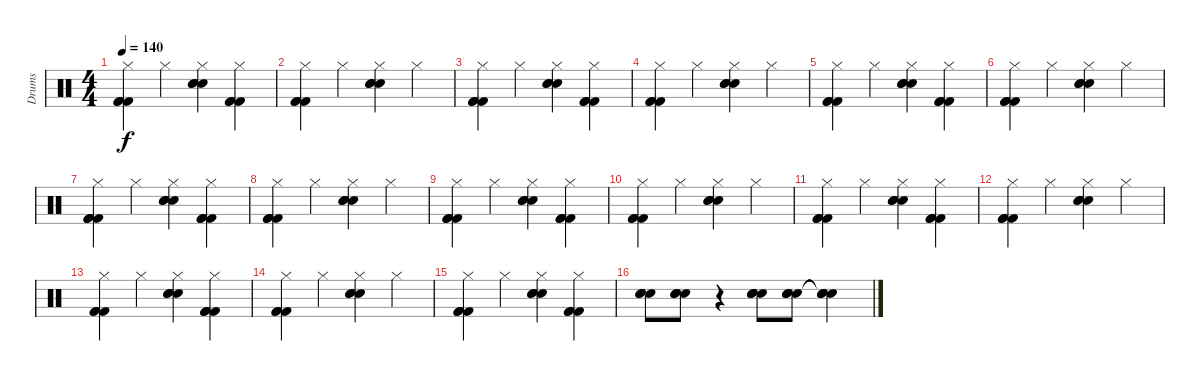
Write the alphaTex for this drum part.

\track ("Drums" "Drums") {instrument percussion}
\staff {score}
\articulation defaults
\ts (4 4)
\tempo 140
\clef neutral
\ks c
("Hi-Hat (closed)" "Kick (hit) 2" "Kick (hit) 2" "Kick (hit) 2").4{dy f} "Hi-Hat (closed)".4 ("Hi-Hat (closed)" "Snare (hit) 2" "Snare (hit) 2" "Snare (hit) 2").4 ("Hi-Hat (closed)" "Kick (hit) 2" "Kick (hit) 2" "Kick (hit) 2").4 |
("Hi-Hat (closed)" "Kick (hit) 2" "Kick (hit) 2" "Kick (hit) 2").4 "Hi-Hat (closed)".4 ("Hi-Hat (closed)" "Snare (hit) 2" "Snare (hit) 2" "Snare (hit) 2").4 "Hi-Hat (closed)".4 |
("Hi-Hat (closed)" "Kick (hit) 2" "Kick (hit) 2" "Kick (hit) 2").4 "Hi-Hat (closed)".4 ("Hi-Hat (closed)" "Snare (hit) 2" "Snare (hit) 2" "Snare (hit) 2").4 ("Hi-Hat (closed)" "Kick (hit) 2" "Kick (hit) 2" "Kick (hit) 2").4 |
("Hi-Hat (closed)" "Kick (hit) 2" "Kick (hit) 2" "Kick (hit) 2").4 "Hi-Hat (closed)".4 ("Hi-Hat (closed)" "Snare (hit) 2" "Snare (hit) 2" "Snare (hit) 2").4 "Hi-Hat (closed)".4 |
("Hi-Hat (closed)" "Kick (hit) 2" "Kick (hit) 2" "Kick (hit) 2").4 "Hi-Hat (closed)".4 ("Hi-Hat (closed)" "Snare (hit) 2" "Snare (hit) 2" "Snare (hit) 2").4 ("Hi-Hat (closed)" "Kick (hit) 2" "Kick (hit) 2" "Kick (hit) 2").4 |
("Hi-Hat (closed)" "Kick (hit) 2" "Kick (hit) 2" "Kick (hit) 2").4 "Hi-Hat (closed)".4 ("Hi-Hat (closed)" "Snare (hit) 2" "Snare (hit) 2" "Snare (hit) 2").4 "Hi-Hat (closed)".4 |
("Hi-Hat (closed)" "Kick (hit) 2" "Kick (hit) 2" "Kick (hit) 2").4 "Hi-Hat (closed)".4 ("Hi-Hat (closed)" "Snare (hit) 2" "Snare (hit) 2" "Snare (hit) 2").4 ("Hi-Hat (closed)" "Kick (hit) 2" "Kick (hit) 2" "Kick (hit) 2").4 |
("Hi-Hat (closed)" "Kick (hit) 2" "Kick (hit) 2" "Kick (hit) 2").4 "Hi-Hat (closed)".4 ("Hi-Hat (closed)" "Snare (hit) 2" "Snare (hit) 2" "Snare (hit) 2").4 "Hi-Hat (closed)".4 |
("Hi-Hat (closed)" "Kick (hit) 2" "Kick (hit) 2" "Kick (hit) 2").4 "Hi-Hat (closed)".4 ("Hi-Hat (closed)" "Snare (hit) 2" "Snare (hit) 2" "Snare (hit) 2").4 ("Hi-Hat (closed)" "Kick (hit) 2" "Kick (hit) 2" "Kick (hit) 2").4 |
("Hi-Hat (closed)" "Kick (hit) 2" "Kick (hit) 2" "Kick (hit) 2").4 "Hi-Hat (closed)".4 ("Hi-Hat (closed)" "Snare (hit) 2" "Snare (hit) 2" "Snare (hit) 2").4 "Hi-Hat (closed)".4 |
("Hi-Hat (closed)" "Kick (hit) 2" "Kick (hit) 2" "Kick (hit) 2").4 "Hi-Hat (closed)".4 ("Hi-Hat (closed)" "Snare (hit) 2" "Snare (hit) 2" "Snare (hit) 2").4 ("Hi-Hat (closed)" "Kick (hit) 2" "Kick (hit) 2" "Kick (hit) 2").4 |
("Hi-Hat (closed)" "Kick (hit) 2" "Kick (hit) 2" "Kick (hit) 2").4 "Hi-Hat (closed)".4 ("Hi-Hat (closed)" "Snare (hit) 2" "Snare (hit) 2" "Snare (hit) 2").4 "Hi-Hat (closed)".4 |
("Hi-Hat (closed)" "Kick (hit) 2" "Kick (hit) 2" "Kick (hit) 2").4 "Hi-Hat (closed)".4 ("Hi-Hat (closed)" "Snare (hit) 2" "Snare (hit) 2" "Snare (hit) 2").4 ("Hi-Hat (closed)" "Kick (hit) 2" "Kick (hit) 2" "Kick (hit) 2").4 |
("Hi-Hat (closed)" "Kick (hit) 2" "Kick (hit) 2" "Kick (hit) 2").4 "Hi-Hat (closed)".4 ("Hi-Hat (closed)" "Snare (hit) 2" "Snare (hit) 2" "Snare (hit) 2").4 "Hi-Hat (closed)".4 |
("Hi-Hat (closed)" "Kick (hit) 2" "Kick (hit) 2" "Kick (hit) 2").4 "Hi-Hat (closed)".4 ("Hi-Hat (closed)" "Snare (hit) 2" "Snare (hit) 2" "Snare (hit) 2").4 ("Hi-Hat (closed)" "Kick (hit) 2" "Kick (hit) 2" "Kick (hit) 2").4 |
("Electric Snare (hit)" "Electric Snare (hit)" "Electric Snare (hit)" "Electric Snare (hit)").8 ("Electric Snare (hit)" "Electric Snare (hit)" "Electric Snare (hit)" "Electric Snare (hit)").8 r.4 ("Electric Snare (hit)" "Electric Snare (hit)" "Electric Snare (hit)" "Electric Snare (hit)").8 ("Electric Snare (hit)" "Electric Snare (hit)" "Electric Snare (hit)" "Electric Snare (hit)").8 ("Snare (hit)"{t} "Snare (hit)"{t} "Snare (hit)"{t} "Snare (hit)"{t}).4
